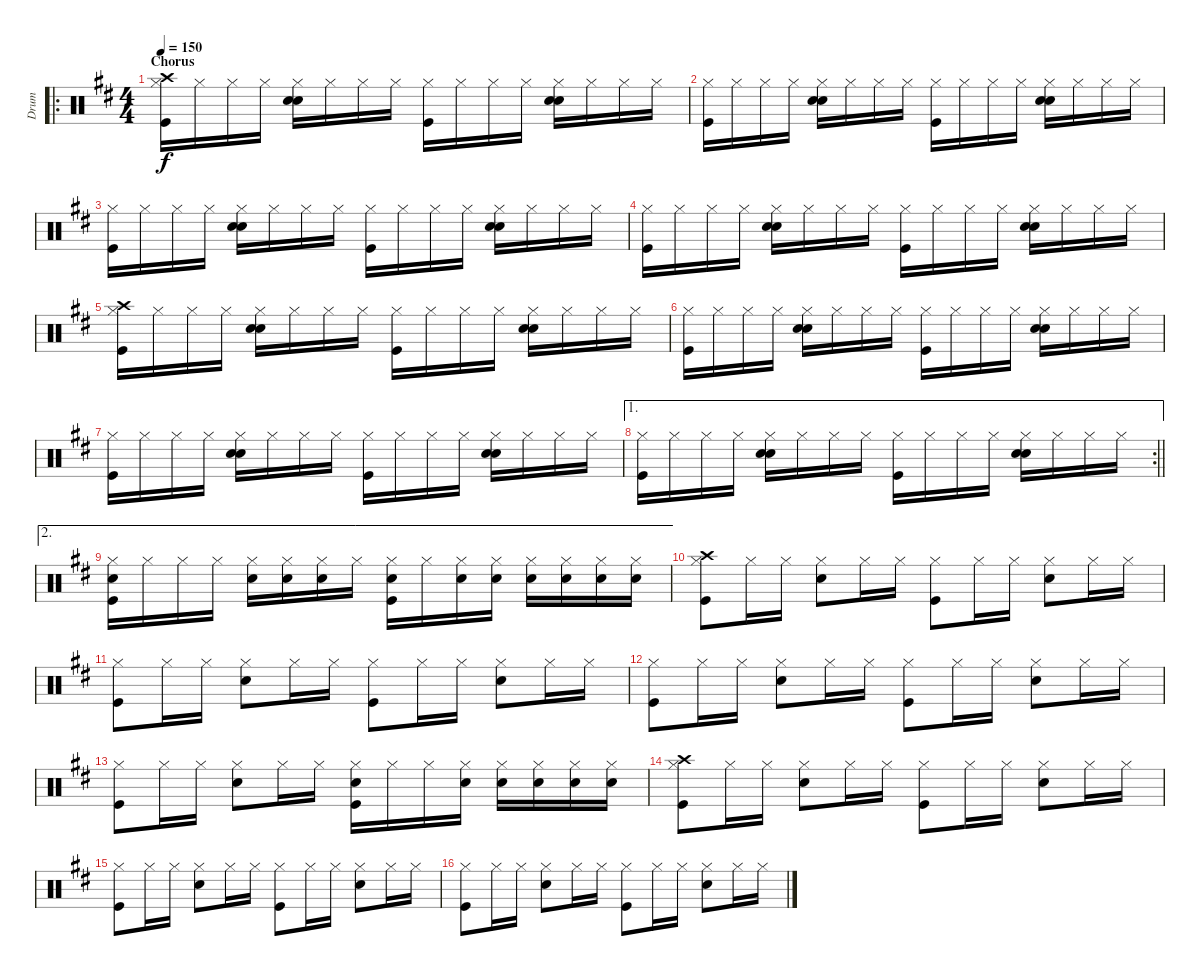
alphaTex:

\track ("Drum" "Drum") {instrument percussion}
\staff {score}
\articulation defaults
\ro
\ts (4 4)
\section ("" "Chorus")
\tempo 150
\clef neutral
\ks d
("Crash high (hit)" "Hi-Hat (closed)" "Kick (hit)").16{dy f} "Hi-Hat (closed)".16 "Hi-Hat (closed)".16 "Hi-Hat (closed)".16 ("Hi-Hat (closed)" "Snare (hit) 2" "Hand Clap (hit)").16 "Hi-Hat (closed)".16 "Hi-Hat (closed)".16 "Hi-Hat (closed)".16 ("Hi-Hat (closed)" "Kick (hit)").16 "Hi-Hat (closed)".16 "Hi-Hat (closed)".16 "Hi-Hat (closed)".16 ("Hi-Hat (closed)" "Snare (hit) 2" "Hand Clap (hit)").16 "Hi-Hat (closed)".16 "Hi-Hat (closed)".16 "Hi-Hat (closed)".16 |
("Hi-Hat (closed)" "Kick (hit)").16 "Hi-Hat (closed)".16 "Hi-Hat (closed)".16 "Hi-Hat (closed)".16 ("Hi-Hat (closed)" "Snare (hit) 2" "Hand Clap (hit)").16 "Hi-Hat (closed)".16 "Hi-Hat (closed)".16 "Hi-Hat (closed)".16 ("Hi-Hat (closed)" "Kick (hit)").16 "Hi-Hat (closed)".16 "Hi-Hat (closed)".16 "Hi-Hat (closed)".16 ("Hi-Hat (closed)" "Snare (hit) 2" "Hand Clap (hit)").16 "Hi-Hat (closed)".16 "Hi-Hat (closed)".16 "Hi-Hat (closed)".16 |
("Hi-Hat (closed)" "Kick (hit)").16 "Hi-Hat (closed)".16 "Hi-Hat (closed)".16 "Hi-Hat (closed)".16 ("Hi-Hat (closed)" "Snare (hit) 2" "Hand Clap (hit)").16 "Hi-Hat (closed)".16 "Hi-Hat (closed)".16 "Hi-Hat (closed)".16 ("Hi-Hat (closed)" "Kick (hit)").16 "Hi-Hat (closed)".16 "Hi-Hat (closed)".16 "Hi-Hat (closed)".16 ("Hi-Hat (closed)" "Snare (hit) 2" "Hand Clap (hit)").16 "Hi-Hat (closed)".16 "Hi-Hat (closed)".16 "Hi-Hat (closed)".16 |
("Hi-Hat (closed)" "Kick (hit)").16 "Hi-Hat (closed)".16 "Hi-Hat (closed)".16 "Hi-Hat (closed)".16 ("Hi-Hat (closed)" "Snare (hit) 2" "Hand Clap (hit)").16 "Hi-Hat (closed)".16 "Hi-Hat (closed)".16 "Hi-Hat (closed)".16 ("Hi-Hat (closed)" "Kick (hit)").16 "Hi-Hat (closed)".16 "Hi-Hat (closed)".16 "Hi-Hat (closed)".16 ("Hi-Hat (closed)" "Snare (hit) 2" "Hand Clap (hit)").16 "Hi-Hat (closed)".16 "Hi-Hat (closed)".16 "Hi-Hat (closed)".16 |
("Crash high (hit)" "Hi-Hat (closed)" "Kick (hit)").16 "Hi-Hat (closed)".16 "Hi-Hat (closed)".16 "Hi-Hat (closed)".16 ("Hi-Hat (closed)" "Snare (hit) 2" "Hand Clap (hit)").16 "Hi-Hat (closed)".16 "Hi-Hat (closed)".16 "Hi-Hat (closed)".16 ("Hi-Hat (closed)" "Kick (hit)").16 "Hi-Hat (closed)".16 "Hi-Hat (closed)".16 "Hi-Hat (closed)".16 ("Hi-Hat (closed)" "Snare (hit) 2" "Hand Clap (hit)").16 "Hi-Hat (closed)".16 "Hi-Hat (closed)".16 "Hi-Hat (closed)".16 |
("Hi-Hat (closed)" "Kick (hit)").16 "Hi-Hat (closed)".16 "Hi-Hat (closed)".16 "Hi-Hat (closed)".16 ("Hi-Hat (closed)" "Snare (hit) 2" "Hand Clap (hit)").16 "Hi-Hat (closed)".16 "Hi-Hat (closed)".16 "Hi-Hat (closed)".16 ("Hi-Hat (closed)" "Kick (hit)").16 "Hi-Hat (closed)".16 "Hi-Hat (closed)".16 "Hi-Hat (closed)".16 ("Hi-Hat (closed)" "Snare (hit) 2" "Hand Clap (hit)").16 "Hi-Hat (closed)".16 "Hi-Hat (closed)".16 "Hi-Hat (closed)".16 |
("Hi-Hat (closed)" "Kick (hit)").16 "Hi-Hat (closed)".16 "Hi-Hat (closed)".16 "Hi-Hat (closed)".16 ("Hi-Hat (closed)" "Snare (hit) 2" "Hand Clap (hit)").16 "Hi-Hat (closed)".16 "Hi-Hat (closed)".16 "Hi-Hat (closed)".16 ("Hi-Hat (closed)" "Kick (hit)").16 "Hi-Hat (closed)".16 "Hi-Hat (closed)".16 "Hi-Hat (closed)".16 ("Hi-Hat (closed)" "Snare (hit) 2" "Hand Clap (hit)").16 "Hi-Hat (closed)".16 "Hi-Hat (closed)".16 "Hi-Hat (closed)".16 |
\ae 1
\rc 2
\barLineRight lightlight
("Hi-Hat (closed)" "Kick (hit)").16 "Hi-Hat (closed)".16 "Hi-Hat (closed)".16 "Hi-Hat (closed)".16 ("Hi-Hat (closed)" "Snare (hit) 2" "Hand Clap (hit)").16 "Hi-Hat (closed)".16 "Hi-Hat (closed)".16 "Hi-Hat (closed)".16 ("Hi-Hat (closed)" "Kick (hit)").16 "Hi-Hat (closed)".16 "Hi-Hat (closed)".16 "Hi-Hat (closed)".16 ("Hi-Hat (closed)" "Snare (hit) 2" "Hand Clap (hit)").16 "Hi-Hat (closed)".16 "Hi-Hat (closed)".16 "Hi-Hat (closed)".16 |
\ae 2
("Hi-Hat (closed)" "Kick (hit)" "Snare (hit) 2").16 "Hi-Hat (closed)".16 "Hi-Hat (closed)".16 "Hi-Hat (closed)".16 ("Hi-Hat (closed)" "Snare (hit) 2").16 ("Hi-Hat (closed)" "Snare (hit) 2").16 ("Hi-Hat (closed)" "Snare (hit) 2").16 "Hi-Hat (closed)".16 ("Hi-Hat (closed)" "Kick (hit)" "Snare (hit) 2").16 "Hi-Hat (closed)".16 ("Hi-Hat (closed)" "Snare (hit) 2").16 ("Hi-Hat (closed)" "Snare (hit) 2").16 ("Hi-Hat (closed)" "Snare (hit) 2").16 ("Hi-Hat (closed)" "Snare (hit) 2").16 ("Hi-Hat (closed)" "Snare (hit) 2").16 ("Hi-Hat (closed)" "Snare (hit) 2").16 |
("Crash high (hit)" "Hi-Hat (closed)" "Kick (hit)").8 "Hi-Hat (closed)".16 "Hi-Hat (closed)".16 ("Hi-Hat (closed)" "Snare (hit) 2").8 "Hi-Hat (closed)".16 "Hi-Hat (closed)".16 ("Hi-Hat (closed)" "Kick (hit)").8 "Hi-Hat (closed)".16 "Hi-Hat (closed)".16 ("Hi-Hat (closed)" "Snare (hit) 2").8 "Hi-Hat (closed)".16 "Hi-Hat (closed)".16 |
("Hi-Hat (closed)" "Kick (hit)").8 "Hi-Hat (closed)".16 "Hi-Hat (closed)".16 ("Hi-Hat (closed)" "Snare (hit) 2").8 "Hi-Hat (closed)".16 "Hi-Hat (closed)".16 ("Hi-Hat (closed)" "Kick (hit)").8 "Hi-Hat (closed)".16 "Hi-Hat (closed)".16 ("Hi-Hat (closed)" "Snare (hit) 2").8 "Hi-Hat (closed)".16 "Hi-Hat (closed)".16 |
("Hi-Hat (closed)" "Kick (hit)").8 "Hi-Hat (closed)".16 "Hi-Hat (closed)".16 ("Hi-Hat (closed)" "Snare (hit) 2").8 "Hi-Hat (closed)".16 "Hi-Hat (closed)".16 ("Hi-Hat (closed)" "Kick (hit)").8 "Hi-Hat (closed)".16 "Hi-Hat (closed)".16 ("Hi-Hat (closed)" "Snare (hit) 2").8 "Hi-Hat (closed)".16 "Hi-Hat (closed)".16 |
("Hi-Hat (closed)" "Kick (hit)").8 "Hi-Hat (closed)".16 "Hi-Hat (closed)".16 ("Hi-Hat (closed)" "Snare (hit) 2").8 "Hi-Hat (closed)".16 "Hi-Hat (closed)".16 ("Snare (hit) 2" "Hi-Hat (closed)" "Kick (hit)").16 "Hi-Hat (closed)".16 "Hi-Hat (closed)".16 ("Snare (hit) 2" "Hi-Hat (closed)").16 ("Snare (hit) 2" "Hi-Hat (closed)").16 ("Snare (hit) 2" "Hi-Hat (closed)").16 ("Snare (hit) 2" "Hi-Hat (closed)").16 ("Snare (hit) 2" "Hi-Hat (closed)").16 |
("Crash high (hit)" "Hi-Hat (closed)" "Kick (hit)").8 "Hi-Hat (closed)".16 "Hi-Hat (closed)".16 ("Hi-Hat (closed)" "Snare (hit) 2").8 "Hi-Hat (closed)".16 "Hi-Hat (closed)".16 ("Hi-Hat (closed)" "Kick (hit)").8 "Hi-Hat (closed)".16 "Hi-Hat (closed)".16 ("Hi-Hat (closed)" "Snare (hit) 2").8 "Hi-Hat (closed)".16 "Hi-Hat (closed)".16 |
("Hi-Hat (closed)" "Kick (hit)").8 "Hi-Hat (closed)".16 "Hi-Hat (closed)".16 ("Hi-Hat (closed)" "Snare (hit) 2").8 "Hi-Hat (closed)".16 "Hi-Hat (closed)".16 ("Hi-Hat (closed)" "Kick (hit)").8 "Hi-Hat (closed)".16 "Hi-Hat (closed)".16 ("Hi-Hat (closed)" "Snare (hit) 2").8 "Hi-Hat (closed)".16 "Hi-Hat (closed)".16 |
("Hi-Hat (closed)" "Kick (hit)").8 "Hi-Hat (closed)".16 "Hi-Hat (closed)".16 ("Hi-Hat (closed)" "Snare (hit) 2").8 "Hi-Hat (closed)".16 "Hi-Hat (closed)".16 ("Hi-Hat (closed)" "Kick (hit)").8 "Hi-Hat (closed)".16 "Hi-Hat (closed)".16 ("Hi-Hat (closed)" "Snare (hit) 2").8 "Hi-Hat (closed)".16 "Hi-Hat (closed)".16
